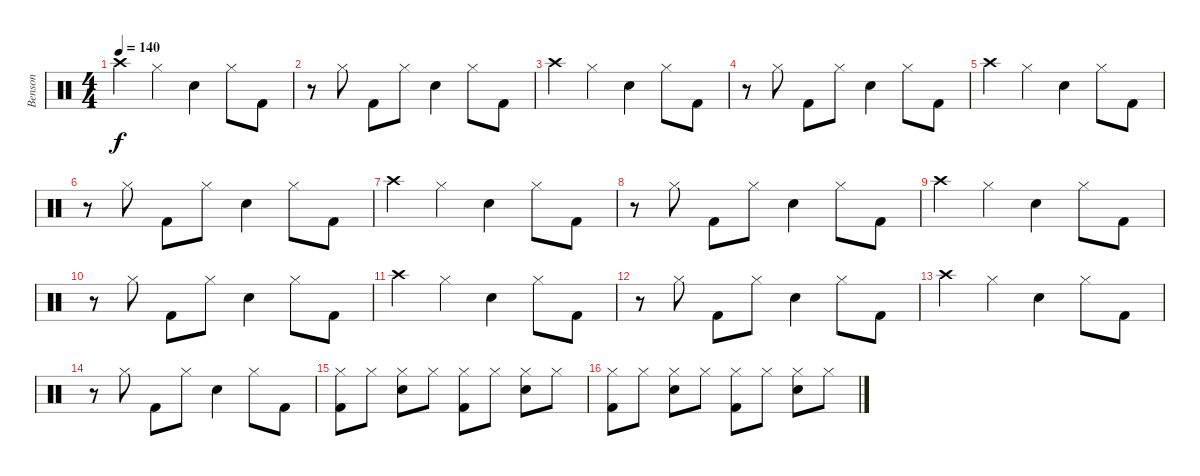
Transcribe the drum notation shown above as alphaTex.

\track ("Benson" "Benson") {instrument percussion}
\staff {score}
\articulation defaults
\ts (4 4)
\tempo 140
\clef neutral
\ks c "Crash high (hit)".4{dy f} "Hi-Hat (closed)".4 "Electric Snare (hit)".4 "Hi-Hat (closed)".8 "Kick (hit) 2".8
|
r.8 "Hi-Hat (closed)".8 "Kick (hit) 2".8 "Hi-Hat (closed)".8 "Electric Snare (hit)".4 "Hi-Hat (closed)".8 "Kick (hit) 2".8 |
"Crash high (hit)".4 "Hi-Hat (closed)".4 "Electric Snare (hit)".4 "Hi-Hat (closed)".8 "Kick (hit) 2".8 |
r.8 "Hi-Hat (closed)".8 "Kick (hit) 2".8 "Hi-Hat (closed)".8 "Electric Snare (hit)".4 "Hi-Hat (closed)".8 "Kick (hit) 2".8 |
"Crash high (hit)".4 "Hi-Hat (closed)".4 "Electric Snare (hit)".4 "Hi-Hat (closed)".8 "Kick (hit) 2".8 |
r.8 "Hi-Hat (closed)".8 "Kick (hit) 2".8 "Hi-Hat (closed)".8 "Electric Snare (hit)".4 "Hi-Hat (closed)".8 "Kick (hit) 2".8 |
"Crash high (hit)".4 "Hi-Hat (closed)".4 "Electric Snare (hit)".4 "Hi-Hat (closed)".8 "Kick (hit) 2".8 |
r.8 "Hi-Hat (closed)".8 "Kick (hit) 2".8 "Hi-Hat (closed)".8 "Electric Snare (hit)".4 "Hi-Hat (closed)".8 "Kick (hit) 2".8 |
"Crash high (hit)".4 "Hi-Hat (closed)".4 "Electric Snare (hit)".4 "Hi-Hat (closed)".8 "Kick (hit) 2".8 |
r.8 "Hi-Hat (closed)".8 "Kick (hit) 2".8 "Hi-Hat (closed)".8 "Electric Snare (hit)".4 "Hi-Hat (closed)".8 "Kick (hit) 2".8 |
"Crash high (hit)".4 "Hi-Hat (closed)".4 "Electric Snare (hit)".4 "Hi-Hat (closed)".8 "Kick (hit) 2".8 |
r.8 "Hi-Hat (closed)".8 "Kick (hit) 2".8 "Hi-Hat (closed)".8 "Electric Snare (hit)".4 "Hi-Hat (closed)".8 "Kick (hit) 2".8 |
"Crash high (hit)".4 "Hi-Hat (closed)".4 "Electric Snare (hit)".4 "Hi-Hat (closed)".8 "Kick (hit) 2".8 |
r.8 "Hi-Hat (closed)".8 "Kick (hit) 2".8 "Hi-Hat (closed)".8 "Electric Snare (hit)".4 "Hi-Hat (closed)".8 "Kick (hit) 2".8 |
("Hi-Hat (closed)" "Kick (hit) 2").8 "Hi-Hat (closed)".8 ("Hi-Hat (closed)" "Electric Snare (hit)").8 "Hi-Hat (closed)".8 ("Hi-Hat (closed)" "Kick (hit) 2").8 "Hi-Hat (closed)".8 ("Hi-Hat (closed)" "Electric Snare (hit)").8 "Hi-Hat (closed)".8 |
("Hi-Hat (closed)" "Kick (hit) 2").8 "Hi-Hat (closed)".8 ("Hi-Hat (closed)" "Electric Snare (hit)").8 "Hi-Hat (closed)".8 ("Hi-Hat (closed)" "Kick (hit) 2").8 "Hi-Hat (closed)".8 ("Hi-Hat (closed)" "Electric Snare (hit)").8 "Hi-Hat (closed)".8
